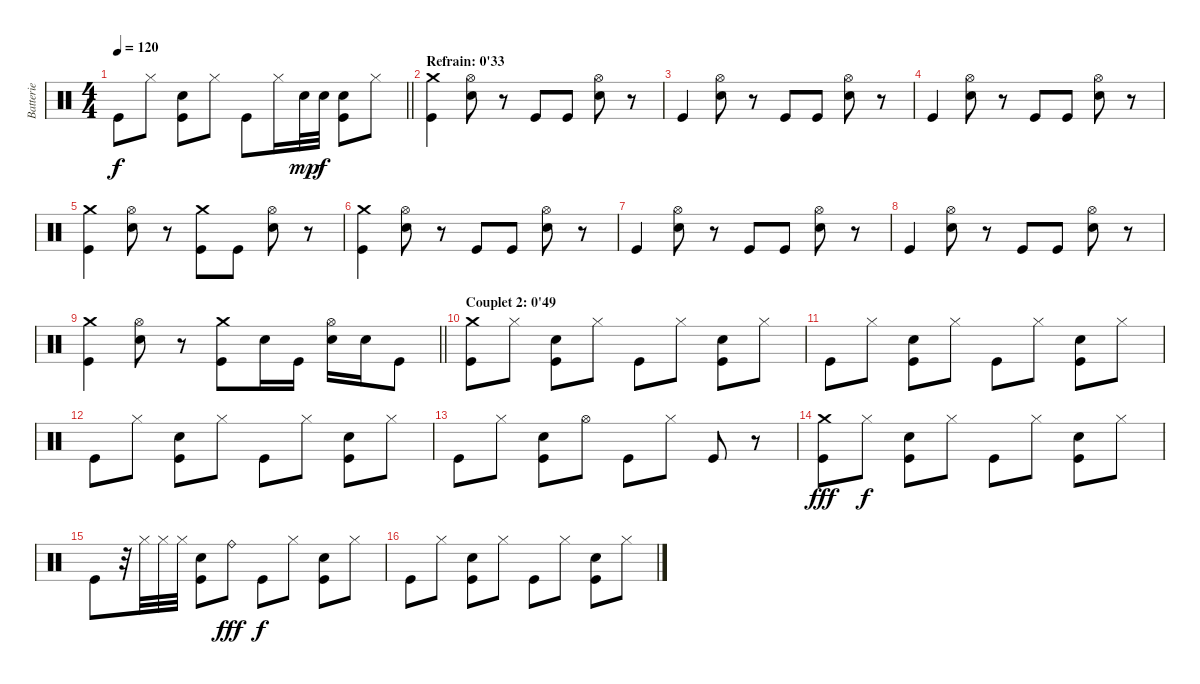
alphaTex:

\track ("Batterie" "Batterie") {instrument percussion}
\staff {score}
\articulation defaults
\ts (4 4)
\tempo 120
\clef neutral
\barLineRight lightlight
\ks c "Kick (hit)".8{dy f} "Hi-Hat (closed)".8
("Snare (hit) 2" "Kick (hit)").8 "Hi-Hat (closed)".8 "Kick (hit)".8 "Hi-Hat (closed)".16 "Snare (hit) 2".32{dy mp} "Snare (hit) 2".32{dy f} ("Snare (hit) 2" "Kick (hit)").8 "Hi-Hat (closed)".8 |
\section ("" "Refrain: 0'33")
("Crash medium (hit)" "Kick (hit)").4 ("Hi-Hat (open)" "Snare (hit) 2").8 r.8 "Kick (hit)".8 "Kick (hit)".8 ("Hi-Hat (open)" "Snare (hit) 2").8 r.8 |
"Kick (hit)".4 ("Hi-Hat (open)" "Snare (hit) 2").8 r.8 "Kick (hit)".8 "Kick (hit)".8 ("Hi-Hat (open)" "Snare (hit) 2").8 r.8 |
"Kick (hit)".4 ("Hi-Hat (open)" "Snare (hit) 2").8 r.8 "Kick (hit)".8 "Kick (hit)".8 ("Hi-Hat (open)" "Snare (hit) 2").8 r.8 |
("Crash medium (hit)" "Kick (hit)").4 ("Hi-Hat (open)" "Snare (hit) 2").8 r.8 ("Crash medium (hit)" "Kick (hit)").8 "Kick (hit)".8 ("Hi-Hat (open)" "Snare (hit) 2").8 r.8 |
("Crash medium (hit)" "Kick (hit)").4 ("Hi-Hat (open)" "Snare (hit) 2").8 r.8 "Kick (hit)".8 "Kick (hit)".8 ("Hi-Hat (open)" "Snare (hit) 2").8 r.8 |
"Kick (hit)".4 ("Hi-Hat (open)" "Snare (hit) 2").8 r.8 "Kick (hit)".8 "Kick (hit)".8 ("Hi-Hat (open)" "Snare (hit) 2").8 r.8 |
"Kick (hit)".4 ("Hi-Hat (open)" "Snare (hit) 2").8 r.8 "Kick (hit)".8 "Kick (hit)".8 ("Hi-Hat (open)" "Snare (hit) 2").8 r.8 |
\barLineRight lightlight
("Crash medium (hit)" "Kick (hit)").4 ("Hi-Hat (open)" "Snare (hit) 2").8 r.8 ("Crash medium (hit)" "Kick (hit)").8 "Snare (hit) 2".16 "Kick (hit)".16 ("Hi-Hat (open)" "Snare (hit) 2").16 "Snare (hit) 2".16 "Kick (hit)".8 |
\section ("" "Couplet 2: 0'49")
("Crash medium (hit)" "Kick (hit)").8 "Hi-Hat (closed)".8 ("Snare (hit) 2" "Kick (hit)").8 "Hi-Hat (closed)".8 "Kick (hit)".8 "Hi-Hat (closed)".8 ("Snare (hit) 2" "Kick (hit)").8 "Hi-Hat (closed)".8 |
"Kick (hit)".8 "Hi-Hat (closed)".8 ("Snare (hit) 2" "Kick (hit)").8 "Hi-Hat (closed)".8 "Kick (hit)".8 "Hi-Hat (closed)".8 ("Snare (hit) 2" "Kick (hit)").8 "Hi-Hat (closed)".8 |
"Kick (hit)".8 "Hi-Hat (closed)".8 ("Snare (hit) 2" "Kick (hit)").8 "Hi-Hat (closed)".8 "Kick (hit)".8 "Hi-Hat (closed)".8 ("Snare (hit) 2" "Kick (hit)").8 "Hi-Hat (closed)".8 |
"Kick (hit)".8 "Hi-Hat (closed)".8 ("Snare (hit) 2" "Kick (hit)").8 "Hi-Hat (open)".8 "Kick (hit)".8 "Hi-Hat (closed)".8 "Kick (hit)".8 r.8 |
("Crash medium (hit)" "Kick (hit)").8{dy fff} "Hi-Hat (closed)".8{dy f} ("Snare (hit) 2" "Kick (hit)").8 "Hi-Hat (closed)".8 "Kick (hit)".8 "Hi-Hat (closed)".8 ("Snare (hit) 2" "Kick (hit)").8 "Hi-Hat (closed)".8 |
"Kick (hit)".8 r.32 "Hi-Hat (closed)".32 "Hi-Hat (closed)".32 "Hi-Hat (closed)".32 ("Snare (hit) 2" "Kick (hit)").8 "Ride (bell)".8{dy fff} "Kick (hit)".8{dy f} "Hi-Hat (closed)".8 ("Snare (hit) 2" "Kick (hit)").8 "Hi-Hat (closed)".8 |
"Kick (hit)".8 "Hi-Hat (closed)".8 ("Snare (hit) 2" "Kick (hit)").8 "Hi-Hat (closed)".8 "Kick (hit)".8 "Hi-Hat (closed)".8 ("Snare (hit) 2" "Kick (hit)").8 "Hi-Hat (closed)".8
